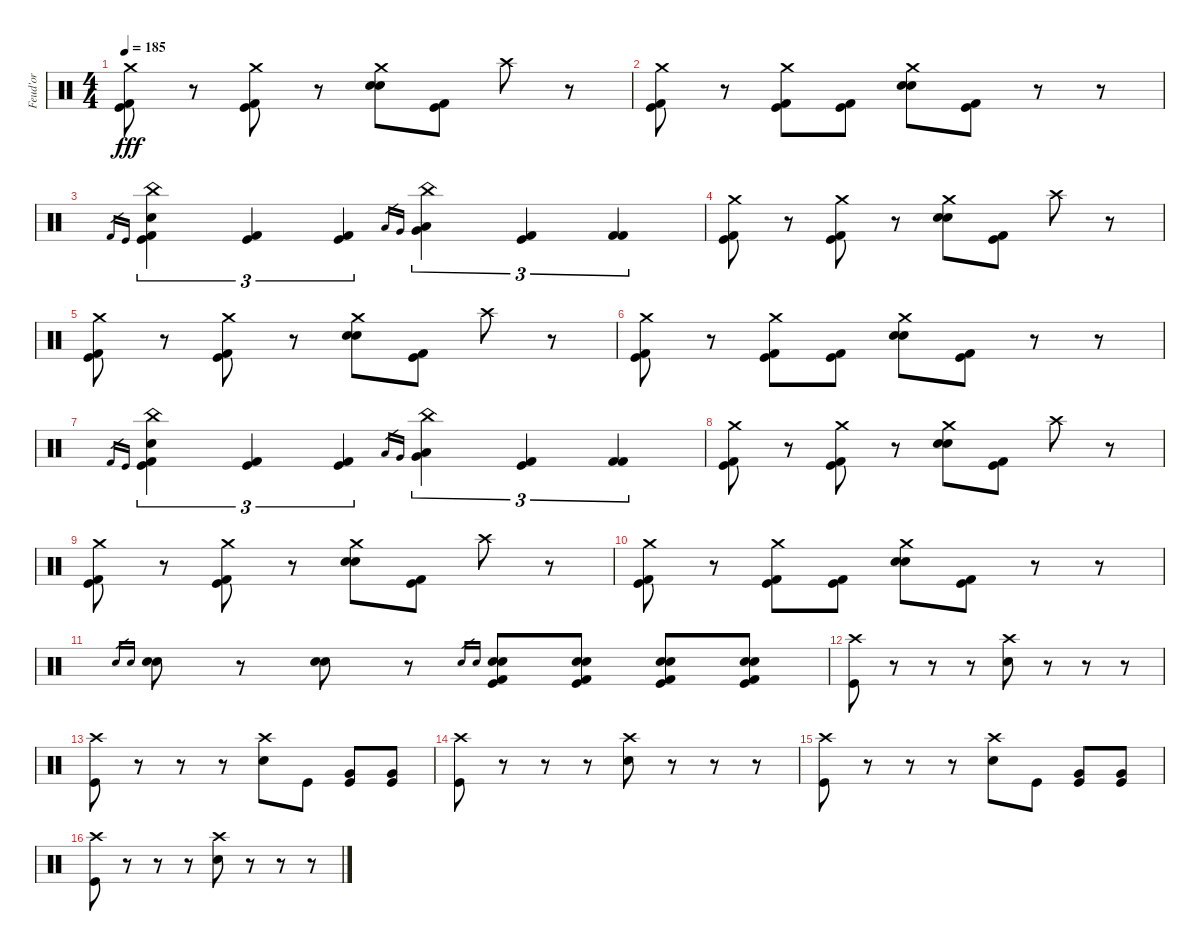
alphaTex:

\track ("Feud'or" "Feud'or") {instrument percussion}
\staff {score}
\articulation defaults
\ts (4 4)
\tempo 185
\clef neutral
\ks c
("Crash medium (hit)" "Kick (hit) 2" "Kick (hit)").8{dy fff} r.8 ("Crash medium (hit)" "Kick (hit) 2" "Kick (hit)").8 r.8 ("Crash medium (hit)" "Electric Snare (hit)" "Snare (hit) 2").8 ("Kick (hit) 2" "Kick (hit)").8 "Crash high (hit)".8 r.8 |
("Crash medium (hit)" "Kick (hit) 2" "Kick (hit)").8 r.8 ("Crash medium (hit)" "Kick (hit) 2" "Kick (hit)").8 ("Kick (hit) 2" "Kick (hit)").8 ("Crash medium (hit)" "Electric Snare (hit)" "Snare (hit) 2").8 ("Kick (hit) 2" "Kick (hit)").8 r.8 r.8 |
"Kick (hit) 2".16{gr} "Kick (hit)".16{gr} ("China (hit)" "Snare (hit) 2" "Kick (hit) 2" "Kick (hit)").4{tu (3 2)} ("Kick (hit) 2" "Kick (hit)").4{tu (3 2)} ("Kick (hit) 2" "Kick (hit)").4{tu (3 2)} "Low Tom (hit)".16{gr} "Very Low Tom (hit)".16{gr} ("China (hit)" "Low Tom (hit)" "Very Low Tom (hit)").4{tu (3 2)} ("Kick (hit) 2" "Kick (hit)").4{tu (3 2)} ("Kick (hit) 2" "Kick (hit) 2").4{tu (3 2)} |
("Crash medium (hit)" "Kick (hit) 2" "Kick (hit)").8 r.8 ("Crash medium (hit)" "Kick (hit) 2" "Kick (hit)").8 r.8 ("Crash medium (hit)" "Electric Snare (hit)" "Snare (hit) 2").8 ("Kick (hit) 2" "Kick (hit)").8 "Crash high (hit)".8 r.8 |
("Crash medium (hit)" "Kick (hit) 2" "Kick (hit)").8 r.8 ("Crash medium (hit)" "Kick (hit) 2" "Kick (hit)").8 r.8 ("Crash medium (hit)" "Electric Snare (hit)" "Snare (hit) 2").8 ("Kick (hit) 2" "Kick (hit)").8 "Crash high (hit)".8 r.8 |
("Crash medium (hit)" "Kick (hit) 2" "Kick (hit)").8 r.8 ("Crash medium (hit)" "Kick (hit) 2" "Kick (hit)").8 ("Kick (hit) 2" "Kick (hit)").8 ("Crash medium (hit)" "Electric Snare (hit)" "Snare (hit) 2").8 ("Kick (hit) 2" "Kick (hit)").8 r.8 r.8 |
"Kick (hit) 2".16{gr} "Kick (hit)".16{gr} ("China (hit)" "Snare (hit) 2" "Kick (hit) 2" "Kick (hit)").4{tu (3 2)} ("Kick (hit) 2" "Kick (hit)").4{tu (3 2)} ("Kick (hit) 2" "Kick (hit)").4{tu (3 2)} "Low Tom (hit)".16{gr} "Very Low Tom (hit)".16{gr} ("China (hit)" "Low Tom (hit)" "Very Low Tom (hit)").4{tu (3 2)} ("Kick (hit) 2" "Kick (hit)").4{tu (3 2)} ("Kick (hit) 2" "Kick (hit) 2").4{tu (3 2)} |
("Crash medium (hit)" "Kick (hit) 2" "Kick (hit)").8 r.8 ("Crash medium (hit)" "Kick (hit) 2" "Kick (hit)").8 r.8 ("Crash medium (hit)" "Electric Snare (hit)" "Snare (hit) 2").8 ("Kick (hit) 2" "Kick (hit)").8 "Crash high (hit)".8 r.8 |
("Crash medium (hit)" "Kick (hit) 2" "Kick (hit)").8 r.8 ("Crash medium (hit)" "Kick (hit) 2" "Kick (hit)").8 r.8 ("Crash medium (hit)" "Electric Snare (hit)" "Snare (hit) 2").8 ("Kick (hit) 2" "Kick (hit)").8 "Crash high (hit)".8 r.8 |
("Crash medium (hit)" "Kick (hit) 2" "Kick (hit)").8 r.8 ("Crash medium (hit)" "Kick (hit) 2" "Kick (hit)").8 ("Kick (hit) 2" "Kick (hit)").8 ("Crash medium (hit)" "Electric Snare (hit)" "Snare (hit) 2").8 ("Kick (hit) 2" "Kick (hit)").8 r.8 r.8 |
"Electric Snare (hit)".16{gr} "Snare (hit) 2".16{gr} ("Electric Snare (hit)" "Snare (hit) 2").8 r.8 ("Electric Snare (hit)" "Snare (hit) 2").8 r.8 "Electric Snare (hit)".16{gr} "Snare (hit) 2".16{gr} ("Electric Snare (hit)" "Snare (hit) 2" "Kick (hit) 2" "Kick (hit)").8 ("Electric Snare (hit)" "Snare (hit) 2" "Kick (hit) 2" "Kick (hit)").8 ("Electric Snare (hit)" "Snare (hit) 2" "Kick (hit) 2" "Kick (hit)").8 ("Electric Snare (hit)" "Snare (hit) 2" "Kick (hit) 2" "Kick (hit)").8 |
("Crash high (hit)" "Kick (hit)").8 r.8 r.8 r.8 ("Crash high (hit)" "Snare (hit) 2").8 r.8 r.8 r.8 |
("Crash high (hit)" "Kick (hit)").8 r.8 r.8 r.8 ("Crash high (hit)" "Snare (hit) 2").8 "Kick (hit)".8 ("Very Low Tom (hit)" "Kick (hit)").8 ("Very Low Tom (hit)" "Kick (hit)").8 |
("Crash high (hit)" "Kick (hit)").8 r.8 r.8 r.8 ("Crash high (hit)" "Snare (hit) 2").8 r.8 r.8 r.8 |
("Crash high (hit)" "Kick (hit)").8 r.8 r.8 r.8 ("Crash high (hit)" "Snare (hit) 2").8 "Kick (hit)".8 ("Very Low Tom (hit)" "Kick (hit)").8 ("Very Low Tom (hit)" "Kick (hit)").8 |
("Crash high (hit)" "Kick (hit)").8 r.8 r.8 r.8 ("Crash high (hit)" "Snare (hit) 2").8 r.8 r.8 r.8
